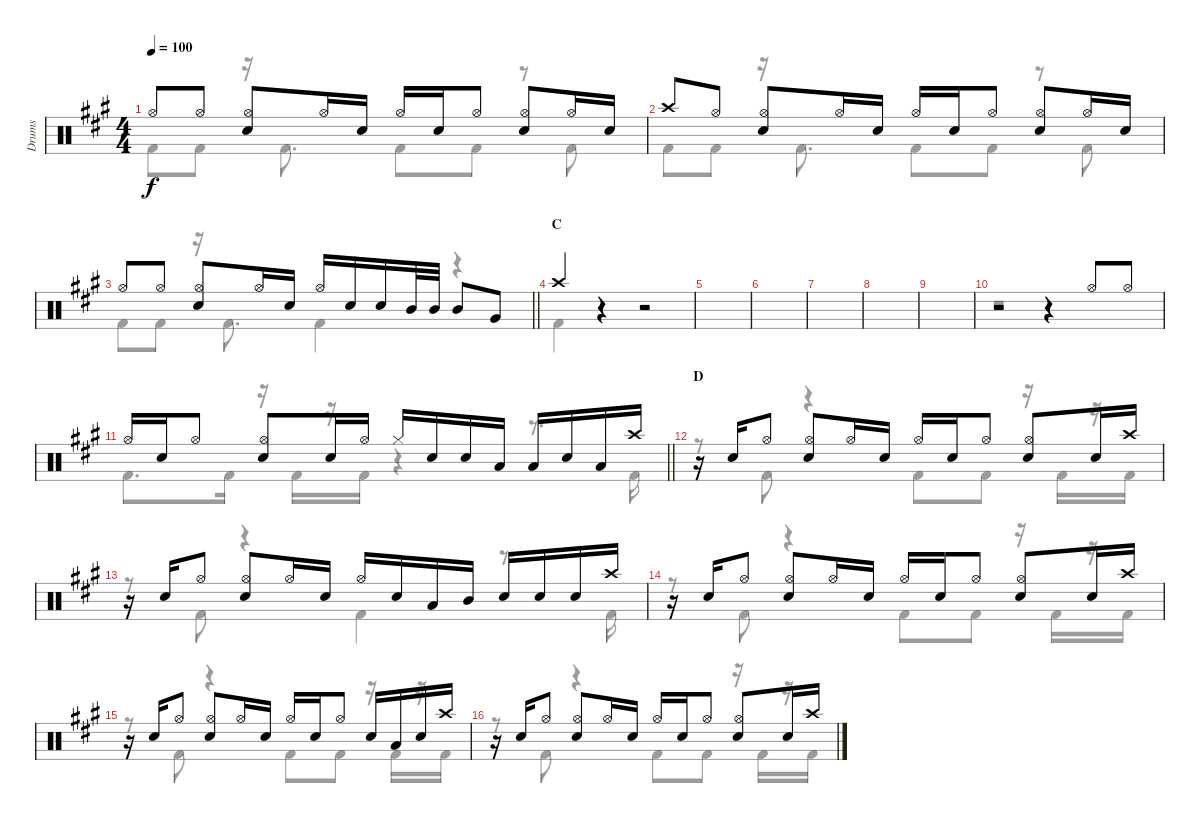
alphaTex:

\track ("Drums" "Drums") {instrument percussion}
\staff {score}
\articulation defaults
\voice
\ts (4 4)
\tempo 100
\clef neutral
\ks a "Hi-Hat (open)".8{dy f} "Hi-Hat (open)".8
("Hi-Hat (open)" "Electric Snare (hit)").8 "Hi-Hat (open)".16 "Electric Snare (hit)".16 "Hi-Hat (open)".16 "Electric Snare (hit)".16 "Hi-Hat (open)".8 ("Hi-Hat (open)" "Electric Snare (hit)").8 "Hi-Hat (open)".16 "Electric Snare (hit)".16 |
"Crash high (hit)".8 "Hi-Hat (open)".8 ("Hi-Hat (open)" "Electric Snare (hit)").8 "Hi-Hat (open)".16 "Electric Snare (hit)".16 "Hi-Hat (open)".16 "Electric Snare (hit)".16 "Hi-Hat (open)".8 ("Hi-Hat (open)" "Electric Snare (hit)").8 "Hi-Hat (open)".16 "Electric Snare (hit)".16 |
\barLineRight lightlight "Hi-Hat (open)".8 "Hi-Hat (open)".8
("Hi-Hat (open)" "Electric Snare (hit)").8 "Hi-Hat (open)".16 "Electric Snare (hit)".16 "Hi-Hat (open)".16 "Electric Snare (hit)".16 "Electric Snare (hit)".16 "Mid Tom (hit)".32 "Mid Tom (hit)".32 "Mid Tom (hit)".8 "Very Low Tom (hit)".8 |
\section ("" "C")
"Crash high (hit)".4 r.4 r.2 |
|
|
|
|
|
r.2 r.4 "Hi-Hat (open)".8 "Hi-Hat (open)".8 |
\barLineRight lightlight "Hi-Hat (open)".16 "Electric Snare (hit)".16 "Hi-Hat (open)".8
("Hi-Hat (open)" "Electric Snare (hit)").8 "Electric Snare (hit)".16 "Hi-Hat (open)".16 "Hi-Hat (closed)".16 "Electric Snare (hit)".16 "Electric Snare (hit)".16 "Low Tom (hit)".16 "Low Tom (hit)".16 "Electric Snare (hit)".16 "Low Tom (hit)".16 "Crash high (hit)".16 |
\section ("" "D")
r.16 "Electric Snare (hit)".16 "Hi-Hat (open)".8 ("Hi-Hat (open)" "Electric Snare (hit)").8 "Hi-Hat (open)".16 "Electric Snare (hit)".16 "Hi-Hat (open)".16 "Electric Snare (hit)".16 "Hi-Hat (open)".8 ("Hi-Hat (open)" "Electric Snare (hit)").8 "Electric Snare (hit)".16 "Crash high (hit)".16 |
r.16 "Electric Snare (hit)".16 "Hi-Hat (open)".8 ("Hi-Hat (open)" "Electric Snare (hit)").8 "Hi-Hat (open)".16 "Electric Snare (hit)".16 "Hi-Hat (open)".16 "Electric Snare (hit)".16 "Low Tom (hit)".16 "Mid Tom (hit)".16 "Electric Snare (hit)".16 "Electric Snare (hit)".16 "Electric Snare (hit)".16 "Crash high (hit)".16 |
r.16 "Electric Snare (hit)".16 "Hi-Hat (open)".8 ("Hi-Hat (open)" "Electric Snare (hit)").8 "Hi-Hat (open)".16 "Electric Snare (hit)".16 "Hi-Hat (open)".16 "Electric Snare (hit)".16 "Hi-Hat (open)".8 ("Hi-Hat (open)" "Electric Snare (hit)").8 "Electric Snare (hit)".16 "Crash high (hit)".16 |
r.16 "Electric Snare (hit)".16 "Hi-Hat (open)".8 ("Hi-Hat (open)" "Electric Snare (hit)").8 "Hi-Hat (open)".16 "Electric Snare (hit)".16 "Hi-Hat (open)".16 "Electric Snare (hit)".16 "Hi-Hat (open)".8 "Electric Snare (hit)".16 "Low Tom (hit)".16 "Electric Snare (hit)".16 "Crash high (hit)".16 |
r.16 "Electric Snare (hit)".16 "Hi-Hat (open)".8 ("Hi-Hat (open)" "Electric Snare (hit)").8 "Hi-Hat (open)".16 "Electric Snare (hit)".16 "Hi-Hat (open)".16 "Electric Snare (hit)".16 "Hi-Hat (open)".8 ("Hi-Hat (open)" "Electric Snare (hit)").8 "Electric Snare (hit)".16 "Crash high (hit)".16
\voice
\clef neutral
\ottava regular
\simile none
\ks a "Kick (hit) 2".8{dy f} "Kick (hit) 2".8
r.16 "Kick (hit) 2".8{d} "Kick (hit) 2".8 "Kick (hit) 2".8 r.8 "Kick (hit) 2".8 |
"Kick (hit) 2".8 "Kick (hit) 2".8 r.16 "Kick (hit) 2".8{d} "Kick (hit) 2".8 "Kick (hit) 2".8 r.8 "Kick (hit) 2".8 |
\barLineRight lightlight "Kick (hit) 2".8 "Kick (hit) 2".8
r.16 "Kick (hit) 2".8{d} "Kick (hit) 2".4 r.4 |
"Kick (hit) 2".4 r.4 r.2 |
|
|
|
|
|
r.1 |
\barLineRight lightlight "Kick (hit) 2".8{d} "Kick (hit) 2".16
r.16 "Kick (hit) 2".16 r.16 "Kick (hit) 2".16 r.4 r.8{d} "Kick (hit) 2".16 |
r.8 "Kick (hit) 2".8 r.4 "Kick (hit) 2".8 "Kick (hit) 2".8 r.16 "Kick (hit) 2".16 r.16 "Kick (hit) 2".16 |
r.8 "Kick (hit) 2".8 r.4 "Kick (hit) 2".4 r.8{d} "Kick (hit) 2".16 |
r.8 "Kick (hit) 2".8 r.4 "Kick (hit) 2".8 "Kick (hit) 2".8 r.16 "Kick (hit) 2".16 r.16 "Kick (hit) 2".16 |
r.8 "Kick (hit) 2".8 r.4 "Kick (hit) 2".8 "Kick (hit) 2".8 r.16 "Kick (hit) 2".16 r.16 "Kick (hit) 2".16 |
r.8 "Kick (hit) 2".8 r.4 "Kick (hit) 2".8 "Kick (hit) 2".8 r.16 "Kick (hit) 2".16 r.16 "Kick (hit) 2".16
